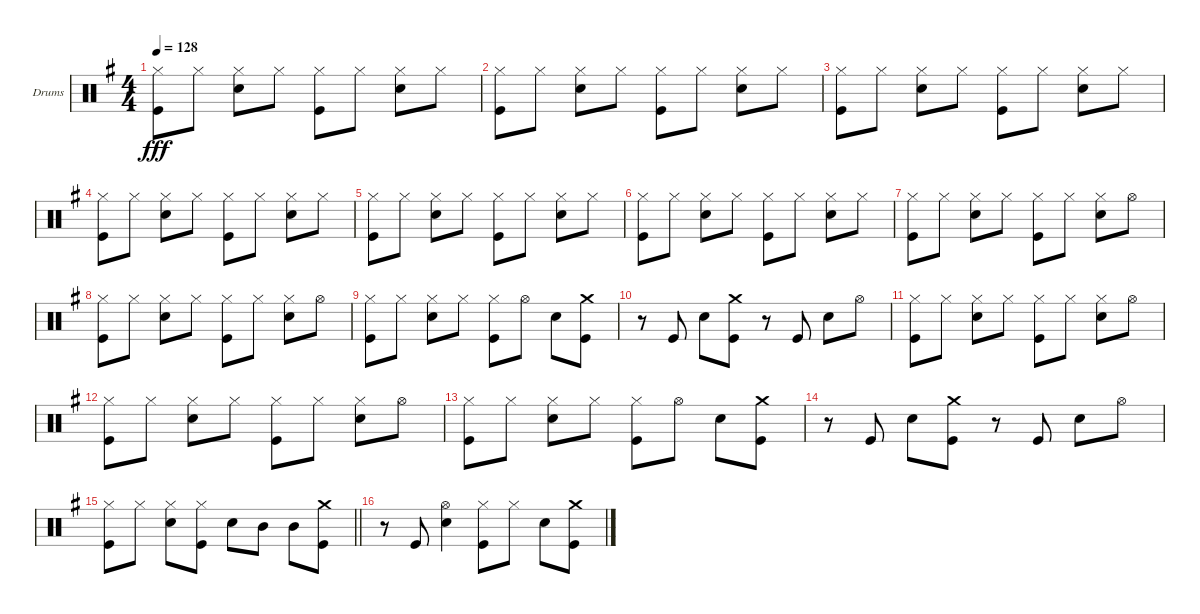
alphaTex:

\bracketExtendMode groupsimilarinstruments
\firstSystemTrackNameOrientation horizontal
\otherSystemsTrackNameOrientation horizontal
\track ("Барабаны" "Drums") {instrument percussion}
\staff {score}
\articulation defaults
\ts (4 4)
\tempo 128
\clef neutral
\ks eminor
("Hi-Hat (closed)" "Kick (hit)").8{dy fff} "Hi-Hat (closed)".8 ("Hi-Hat (closed)" "Snare (hit) 2").8 "Hi-Hat (closed)".8 ("Hi-Hat (closed)" "Kick (hit)").8 "Hi-Hat (closed)".8 ("Hi-Hat (closed)" "Snare (hit) 2").8 "Hi-Hat (closed)".8 |
("Hi-Hat (closed)" "Kick (hit)").8 "Hi-Hat (closed)".8 ("Hi-Hat (closed)" "Snare (hit) 2").8 "Hi-Hat (closed)".8 ("Hi-Hat (closed)" "Kick (hit)").8 "Hi-Hat (closed)".8 ("Hi-Hat (closed)" "Snare (hit) 2").8 "Hi-Hat (closed)".8 |
("Hi-Hat (closed)" "Kick (hit)").8 "Hi-Hat (closed)".8 ("Hi-Hat (closed)" "Snare (hit) 2").8 "Hi-Hat (closed)".8 ("Hi-Hat (closed)" "Kick (hit)").8 "Hi-Hat (closed)".8 ("Hi-Hat (closed)" "Snare (hit) 2").8 "Hi-Hat (closed)".8 |
("Hi-Hat (closed)" "Kick (hit)").8 "Hi-Hat (closed)".8 ("Hi-Hat (closed)" "Snare (hit) 2").8 "Hi-Hat (closed)".8 ("Hi-Hat (closed)" "Kick (hit)").8 "Hi-Hat (closed)".8 ("Hi-Hat (closed)" "Snare (hit) 2").8 "Hi-Hat (closed)".8 |
("Hi-Hat (closed)" "Kick (hit)").8 "Hi-Hat (closed)".8 ("Hi-Hat (closed)" "Snare (hit) 2").8 "Hi-Hat (closed)".8 ("Hi-Hat (closed)" "Kick (hit)").8 "Hi-Hat (closed)".8 ("Hi-Hat (closed)" "Snare (hit) 2").8 "Hi-Hat (closed)".8 |
("Hi-Hat (closed)" "Kick (hit)").8 "Hi-Hat (closed)".8 ("Hi-Hat (closed)" "Snare (hit) 2").8 "Hi-Hat (closed)".8 ("Hi-Hat (closed)" "Kick (hit)").8 "Hi-Hat (closed)".8 ("Hi-Hat (closed)" "Snare (hit) 2").8 "Hi-Hat (closed)".8 |
("Hi-Hat (closed)" "Kick (hit)").8 "Hi-Hat (closed)".8 ("Hi-Hat (closed)" "Snare (hit) 2").8 "Hi-Hat (closed)".8 ("Hi-Hat (closed)" "Kick (hit)").8 "Hi-Hat (closed)".8 ("Hi-Hat (closed)" "Snare (hit) 2").8 "Hi-Hat (open)".8 |
("Hi-Hat (closed)" "Kick (hit)").8 "Hi-Hat (closed)".8 ("Hi-Hat (closed)" "Snare (hit) 2").8 "Hi-Hat (closed)".8 ("Hi-Hat (closed)" "Kick (hit)").8 "Hi-Hat (closed)".8 ("Hi-Hat (closed)" "Snare (hit) 2").8 "Hi-Hat (open)".8 |
("Hi-Hat (closed)" "Kick (hit)").8 "Hi-Hat (closed)".8 ("Hi-Hat (closed)" "Snare (hit) 2").8 "Hi-Hat (closed)".8 ("Hi-Hat (closed)" "Kick (hit)").8 "Hi-Hat (open)".8 "Snare (hit) 2".8 ("Kick (hit)" "Crash medium (hit)").8 |
r.8 "Kick (hit)".8 "Snare (hit) 2".8 ("Kick (hit)" "Crash medium (hit)").8 r.8 "Kick (hit)".8 "Snare (hit) 2".8 "Hi-Hat (open)".8 |
("Hi-Hat (closed)" "Kick (hit)").8 "Hi-Hat (closed)".8 ("Hi-Hat (closed)" "Snare (hit) 2").8 "Hi-Hat (closed)".8 ("Hi-Hat (closed)" "Kick (hit)").8 "Hi-Hat (closed)".8 ("Hi-Hat (closed)" "Snare (hit) 2").8 "Hi-Hat (open)".8 |
("Hi-Hat (closed)" "Kick (hit)").8 "Hi-Hat (closed)".8 ("Hi-Hat (closed)" "Snare (hit) 2").8 "Hi-Hat (closed)".8 ("Hi-Hat (closed)" "Kick (hit)").8 "Hi-Hat (closed)".8 ("Hi-Hat (closed)" "Snare (hit) 2").8 "Hi-Hat (open)".8 |
("Hi-Hat (closed)" "Kick (hit)").8 "Hi-Hat (closed)".8 ("Hi-Hat (closed)" "Snare (hit) 2").8 "Hi-Hat (closed)".8 ("Hi-Hat (closed)" "Kick (hit)").8 "Hi-Hat (open)".8 "Snare (hit) 2".8 ("Kick (hit)" "Crash medium (hit)").8 |
r.8 "Kick (hit)".8 "Snare (hit) 2".8 ("Kick (hit)" "Crash medium (hit)").8 r.8 "Kick (hit)".8 "Snare (hit) 2".8 "Hi-Hat (open)".8 |
\barLineRight lightlight
("Hi-Hat (closed)" "Kick (hit)").8 "Hi-Hat (closed)".8 ("Snare (hit) 2" "Hi-Hat (closed)").8 ("Hi-Hat (closed)" "Kick (hit)").8 "Snare (hit) 2".8 "Mid Tom (hit)".8 "Mid Tom (hit)".8 ("Kick (hit)" "Crash medium (hit)").8 |
\section ("" "")
r.8 "Kick (hit)".8 ("Snare (hit) 2" "Hi-Hat (open)").4 ("Kick (hit)" "Hi-Hat (closed)").8 "Hi-Hat (closed)".8 "Snare (hit) 2".8 ("Kick (hit)" "Crash medium (hit)").8
